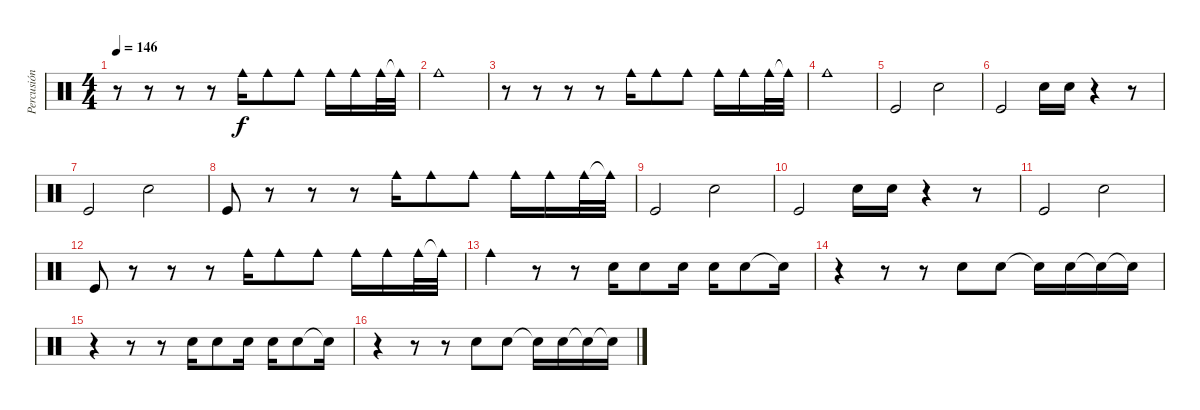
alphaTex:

\track ("Percusión" "Percusión") {instrument percussion}
\staff {score}
\articulation defaults
\ts (4 4)
\tempo 146
\clef neutral
\ks c
r.8{dy f} r.8 r.8 r.8 "Cowbell medium (hit)".16 "Cowbell medium (hit)".8 "Cowbell medium (hit)".8 "Cowbell medium (hit)".16 "Cowbell medium (hit)".16 "Cowbell medium (hit)".32 "Cowbell medium (hit)"{t}.32 |
"Cowbell medium (hit)".1 |
r.8 r.8 r.8 r.8 "Cowbell medium (hit)".16 "Cowbell medium (hit)".8 "Cowbell medium (hit)".8 "Cowbell medium (hit)".16 "Cowbell medium (hit)".16 "Cowbell medium (hit)".32 "Cowbell medium (hit)"{t}.32 |
"Cowbell medium (hit)".1 |
"Kick (hit)".2 "Electric Snare (hit)".2 |
"Kick (hit)".2 "Electric Snare (hit)".16 "Electric Snare (hit)".16 r.4 r.8 |
"Kick (hit)".2 "Electric Snare (hit)".2 |
"Kick (hit)".8 r.8 r.8 r.8 "Cowbell medium (hit)".16 "Cowbell medium (hit)".8 "Cowbell medium (hit)".8 "Cowbell medium (hit)".16 "Cowbell medium (hit)".16 "Cowbell medium (hit)".32 "Cowbell medium (hit)"{t}.32 |
"Kick (hit)".2 "Electric Snare (hit)".2 |
"Kick (hit)".2 "Electric Snare (hit)".16 "Electric Snare (hit)".16 r.4 r.8 |
"Kick (hit)".2 "Electric Snare (hit)".2 |
"Kick (hit)".8 r.8 r.8 r.8 "Cowbell medium (hit)".16 "Cowbell medium (hit)".8 "Cowbell medium (hit)".8 "Cowbell medium (hit)".16 "Cowbell medium (hit)".16 "Cowbell medium (hit)".32 "Cowbell medium (hit)"{t}.32 |
"Cowbell medium (hit)".4 r.8 r.8 "Hand Clap (hit)".16 "Hand Clap (hit)".8 "Hand Clap (hit)".16 "Hand Clap (hit)".16 "Hand Clap (hit)".8 "Snare (hit)"{t}.16 |
r.4 r.8 r.8 "Hand Clap (hit)".8 "Hand Clap (hit)".8 "Snare (hit)"{t}.16 "Hand Clap (hit)".16 "Snare (hit)"{t}.16 "Snare (hit)"{t}.16 |
r.4 r.8 r.8 "Hand Clap (hit)".16 "Hand Clap (hit)".8 "Hand Clap (hit)".16 "Hand Clap (hit)".16 "Hand Clap (hit)".8 "Snare (hit)"{t}.16 |
r.4 r.8 r.8 "Hand Clap (hit)".8 "Hand Clap (hit)".8 "Snare (hit)"{t}.16 "Hand Clap (hit)".16 "Snare (hit)"{t}.16 "Snare (hit)"{t}.16
